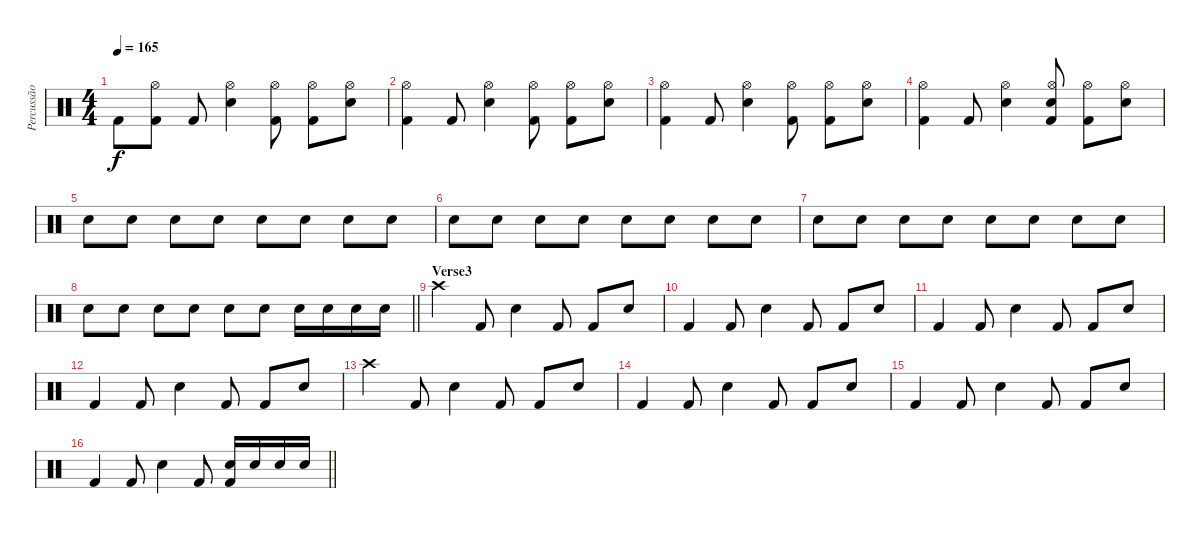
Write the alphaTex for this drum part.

\track ("Percussão" "Percussão") {instrument percussion}
\staff {score}
\articulation defaults
\ts (4 4)
\tempo 165
\clef neutral
\ks c "Kick (hit) 2".8{dy f}
("Hi-Hat (open)" "Kick (hit) 2").8 "Kick (hit) 2".8 ("Hi-Hat (open)" "Snare (hit) 2").4 ("Hi-Hat (open)" "Kick (hit) 2").8 ("Hi-Hat (open)" "Kick (hit) 2").8 ("Hi-Hat (open)" "Snare (hit) 2").8 |
("Hi-Hat (open)" "Kick (hit) 2").4 "Kick (hit) 2".8 ("Hi-Hat (open)" "Snare (hit) 2").4 ("Hi-Hat (open)" "Kick (hit) 2").8 ("Hi-Hat (open)" "Kick (hit) 2").8 ("Hi-Hat (open)" "Snare (hit) 2").8 |
("Hi-Hat (open)" "Kick (hit) 2").4 "Kick (hit) 2".8 ("Hi-Hat (open)" "Snare (hit) 2").4 ("Hi-Hat (open)" "Kick (hit) 2").8 ("Hi-Hat (open)" "Kick (hit) 2").8 ("Hi-Hat (open)" "Snare (hit) 2").8 |
("Hi-Hat (open)" "Kick (hit) 2").4 "Kick (hit) 2".8 ("Hi-Hat (open)" "Snare (hit) 2").4 ("Hi-Hat (open)" "Snare (hit) 2" "Kick (hit) 2").8 ("Hi-Hat (open)" "Kick (hit) 2").8 ("Hi-Hat (open)" "Snare (hit) 2").8 |
"Snare (hit) 2".8 "Snare (hit) 2".8 "Snare (hit) 2".8 "Snare (hit) 2".8 "Snare (hit) 2".8 "Snare (hit) 2".8 "Snare (hit) 2".8 "Snare (hit) 2".8 |
"Snare (hit) 2".8 "Snare (hit) 2".8 "Snare (hit) 2".8 "Snare (hit) 2".8 "Snare (hit) 2".8 "Snare (hit) 2".8 "Snare (hit) 2".8 "Snare (hit) 2".8 |
"Snare (hit) 2".8 "Snare (hit) 2".8 "Snare (hit) 2".8 "Snare (hit) 2".8 "Snare (hit) 2".8 "Snare (hit) 2".8 "Snare (hit) 2".8 "Snare (hit) 2".8 |
\barLineRight lightlight "Snare (hit) 2".8 "Snare (hit) 2".8 "Snare (hit) 2".8 "Snare (hit) 2".8 "Snare (hit) 2".8 "Snare (hit) 2".8 "Snare (hit) 2".16 "Snare (hit) 2".16 "Snare (hit) 2".16 "Snare (hit) 2".16
|
\section ("" "Verse3")
"Crash high (hit)".4 "Kick (hit) 2".8 "Snare (hit) 2".4 "Kick (hit) 2".8 "Kick (hit) 2".8 "Snare (hit) 2".8 |
"Kick (hit) 2".4 "Kick (hit) 2".8 "Snare (hit) 2".4 "Kick (hit) 2".8 "Kick (hit) 2".8 "Snare (hit) 2".8 |
"Kick (hit) 2".4 "Kick (hit) 2".8 "Snare (hit) 2".4 "Kick (hit) 2".8 "Kick (hit) 2".8 "Snare (hit) 2".8 |
"Kick (hit) 2".4 "Kick (hit) 2".8 "Snare (hit) 2".4 "Kick (hit) 2".8 "Kick (hit) 2".8 "Snare (hit) 2".8 |
"Crash high (hit)".4 "Kick (hit) 2".8 "Snare (hit) 2".4 "Kick (hit) 2".8 "Kick (hit) 2".8 "Snare (hit) 2".8 |
"Kick (hit) 2".4 "Kick (hit) 2".8 "Snare (hit) 2".4 "Kick (hit) 2".8 "Kick (hit) 2".8 "Snare (hit) 2".8 |
"Kick (hit) 2".4 "Kick (hit) 2".8 "Snare (hit) 2".4 "Kick (hit) 2".8 "Kick (hit) 2".8 "Snare (hit) 2".8 |
\barLineRight lightlight "Kick (hit) 2".4 "Kick (hit) 2".8 "Snare (hit) 2".4 "Kick (hit) 2".8
("Snare (hit) 2" "Kick (hit) 2").16 "Snare (hit) 2".16 "Snare (hit) 2".16 "Snare (hit) 2".16
